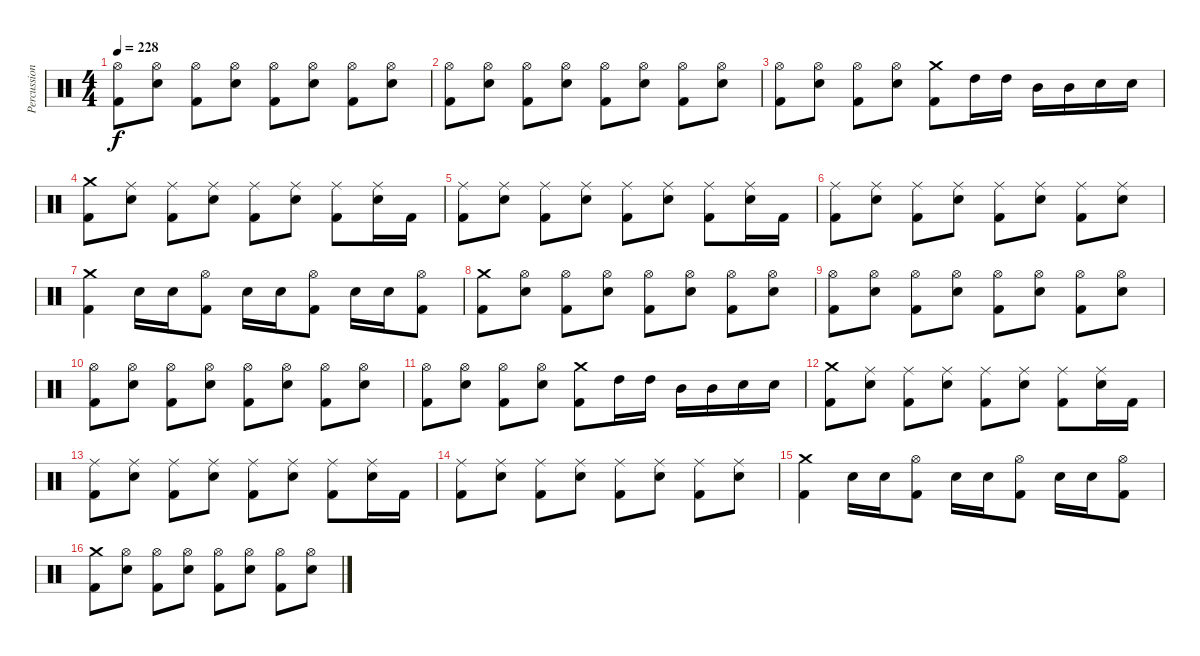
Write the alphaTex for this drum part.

\track ("Percussion" "Percussion") {instrument percussion}
\staff {score}
\articulation defaults
\ts (4 4)
\tempo 228
\clef neutral
\ks c
("Hi-Hat (open)" "Kick (hit) 2").8{dy f} ("Hi-Hat (open)" "Electric Snare (hit)").8 ("Hi-Hat (open)" "Kick (hit) 2").8 ("Hi-Hat (open)" "Electric Snare (hit)").8 ("Hi-Hat (open)" "Kick (hit) 2").8 ("Hi-Hat (open)" "Electric Snare (hit)").8 ("Hi-Hat (open)" "Kick (hit) 2").8 ("Hi-Hat (open)" "Electric Snare (hit)").8 |
("Hi-Hat (open)" "Kick (hit) 2").8 ("Hi-Hat (open)" "Electric Snare (hit)").8 ("Hi-Hat (open)" "Kick (hit) 2").8 ("Hi-Hat (open)" "Electric Snare (hit)").8 ("Hi-Hat (open)" "Kick (hit) 2").8 ("Hi-Hat (open)" "Electric Snare (hit)").8 ("Hi-Hat (open)" "Kick (hit) 2").8 ("Hi-Hat (open)" "Electric Snare (hit)").8 |
("Hi-Hat (open)" "Kick (hit) 2").8 ("Hi-Hat (open)" "Electric Snare (hit)").8 ("Hi-Hat (open)" "Kick (hit) 2").8 ("Hi-Hat (open)" "Electric Snare (hit)").8 ("Crash medium (hit)" "Kick (hit) 2").8 "High Tom (hit)".16 "High Tom (hit)".16 "Mid Tom (hit)".16 "Mid Tom (hit)".16 "Electric Snare (hit)".16 "Electric Snare (hit)".16 |
("Kick (hit) 2" "Crash medium (hit)").8 ("Ride (middle)" "Electric Snare (hit)").8 ("Ride (middle)" "Kick (hit) 2").8 ("Ride (middle)" "Electric Snare (hit)").8 ("Ride (middle)" "Kick (hit) 2").8 ("Ride (middle)" "Electric Snare (hit)").8 ("Ride (middle)" "Kick (hit) 2").8 ("Ride (middle)" "Electric Snare (hit)").16 "Kick (hit) 2".16 |
("Ride (middle)" "Kick (hit) 2").8 ("Ride (middle)" "Electric Snare (hit)").8 ("Ride (middle)" "Kick (hit) 2").8 ("Ride (middle)" "Electric Snare (hit)").8 ("Ride (middle)" "Kick (hit) 2").8 ("Ride (middle)" "Electric Snare (hit)").8 ("Ride (middle)" "Kick (hit) 2").8 ("Ride (middle)" "Electric Snare (hit)").16 "Kick (hit) 2".16 |
("Ride (middle)" "Kick (hit) 2").8 ("Ride (middle)" "Electric Snare (hit)").8 ("Ride (middle)" "Kick (hit) 2").8 ("Ride (middle)" "Electric Snare (hit)").8 ("Ride (middle)" "Kick (hit) 2").8 ("Ride (middle)" "Electric Snare (hit)").8 ("Ride (middle)" "Kick (hit) 2").8 ("Ride (middle)" "Electric Snare (hit)").8 |
("Crash medium (hit)" "Kick (hit) 2").4 "Electric Snare (hit)".16 "Electric Snare (hit)".16 ("Hi-Hat (open)" "Kick (hit) 2").8 "Electric Snare (hit)".16 "Electric Snare (hit)".16 ("Kick (hit) 2" "Hi-Hat (open)").8 "Electric Snare (hit)".16 "Electric Snare (hit)".16 ("Hi-Hat (open)" "Kick (hit) 2").8 |
("Kick (hit) 2" "Crash medium (hit)").8 ("Hi-Hat (open)" "Electric Snare (hit)").8 ("Hi-Hat (open)" "Kick (hit) 2").8 ("Hi-Hat (open)" "Electric Snare (hit)").8 ("Hi-Hat (open)" "Kick (hit) 2").8 ("Hi-Hat (open)" "Electric Snare (hit)").8 ("Hi-Hat (open)" "Kick (hit) 2").8 ("Hi-Hat (open)" "Electric Snare (hit)").8 |
("Hi-Hat (open)" "Kick (hit) 2").8 ("Hi-Hat (open)" "Electric Snare (hit)").8 ("Hi-Hat (open)" "Kick (hit) 2").8 ("Hi-Hat (open)" "Electric Snare (hit)").8 ("Hi-Hat (open)" "Kick (hit) 2").8 ("Hi-Hat (open)" "Electric Snare (hit)").8 ("Hi-Hat (open)" "Kick (hit) 2").8 ("Hi-Hat (open)" "Electric Snare (hit)").8 |
("Hi-Hat (open)" "Kick (hit) 2").8 ("Hi-Hat (open)" "Electric Snare (hit)").8 ("Hi-Hat (open)" "Kick (hit) 2").8 ("Hi-Hat (open)" "Electric Snare (hit)").8 ("Hi-Hat (open)" "Kick (hit) 2").8 ("Hi-Hat (open)" "Electric Snare (hit)").8 ("Hi-Hat (open)" "Kick (hit) 2").8 ("Hi-Hat (open)" "Electric Snare (hit)").8 |
("Hi-Hat (open)" "Kick (hit) 2").8 ("Hi-Hat (open)" "Electric Snare (hit)").8 ("Hi-Hat (open)" "Kick (hit) 2").8 ("Hi-Hat (open)" "Electric Snare (hit)").8 ("Crash medium (hit)" "Kick (hit) 2").8 "High Tom (hit)".16 "High Tom (hit)".16 "Mid Tom (hit)".16 "Mid Tom (hit)".16 "Electric Snare (hit)".16 "Electric Snare (hit)".16 |
("Kick (hit) 2" "Crash medium (hit)").8 ("Ride (middle)" "Electric Snare (hit)").8 ("Ride (middle)" "Kick (hit) 2").8 ("Ride (middle)" "Electric Snare (hit)").8 ("Ride (middle)" "Kick (hit) 2").8 ("Ride (middle)" "Electric Snare (hit)").8 ("Ride (middle)" "Kick (hit) 2").8 ("Ride (middle)" "Electric Snare (hit)").16 "Kick (hit) 2".16 |
("Ride (middle)" "Kick (hit) 2").8 ("Ride (middle)" "Electric Snare (hit)").8 ("Ride (middle)" "Kick (hit) 2").8 ("Ride (middle)" "Electric Snare (hit)").8 ("Ride (middle)" "Kick (hit) 2").8 ("Ride (middle)" "Electric Snare (hit)").8 ("Ride (middle)" "Kick (hit) 2").8 ("Ride (middle)" "Electric Snare (hit)").16 "Kick (hit) 2".16 |
("Ride (middle)" "Kick (hit) 2").8 ("Ride (middle)" "Electric Snare (hit)").8 ("Ride (middle)" "Kick (hit) 2").8 ("Ride (middle)" "Electric Snare (hit)").8 ("Ride (middle)" "Kick (hit) 2").8 ("Ride (middle)" "Electric Snare (hit)").8 ("Ride (middle)" "Kick (hit) 2").8 ("Ride (middle)" "Electric Snare (hit)").8 |
("Crash medium (hit)" "Kick (hit) 2").4 "Electric Snare (hit)".16 "Electric Snare (hit)".16 ("Hi-Hat (open)" "Kick (hit) 2").8 "Electric Snare (hit)".16 "Electric Snare (hit)".16 ("Kick (hit) 2" "Hi-Hat (open)").8 "Electric Snare (hit)".16 "Electric Snare (hit)".16 ("Hi-Hat (open)" "Kick (hit) 2").8 |
("Kick (hit) 2" "Crash medium (hit)").8 ("Hi-Hat (open)" "Electric Snare (hit)").8 ("Hi-Hat (open)" "Kick (hit) 2").8 ("Hi-Hat (open)" "Electric Snare (hit)").8 ("Hi-Hat (open)" "Kick (hit) 2").8 ("Hi-Hat (open)" "Electric Snare (hit)").8 ("Hi-Hat (open)" "Kick (hit) 2").8 ("Hi-Hat (open)" "Electric Snare (hit)").8
